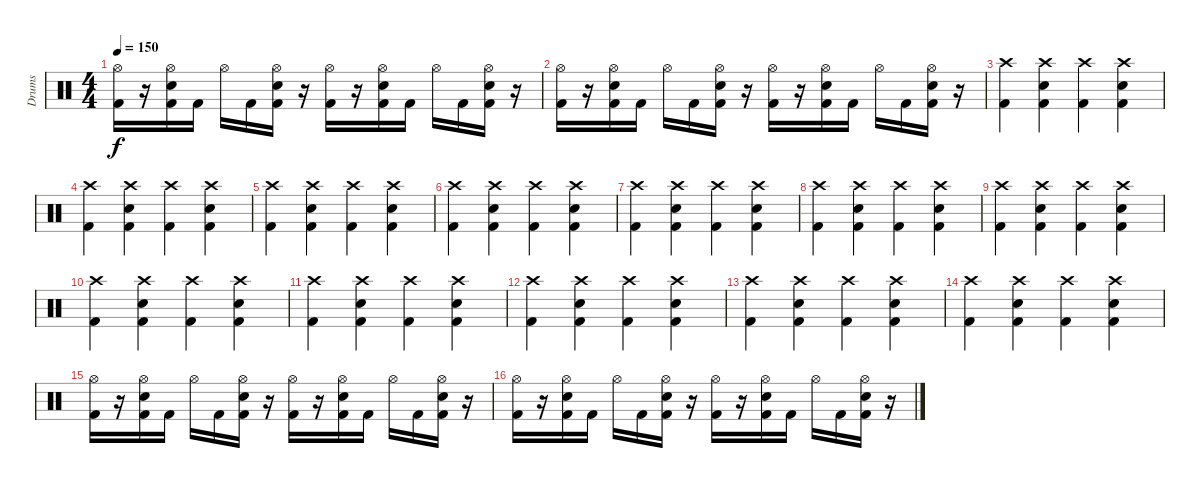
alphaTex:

\track ("Drums" "Drums") {instrument percussion}
\staff {score}
\articulation defaults
\ts (4 4)
\tempo 150
\clef neutral
\ks c
("Hi-Hat (open)" "Kick (hit) 2").16{dy f} r.16 ("Hi-Hat (open)" "Electric Snare (hit)" "Kick (hit) 2").16 "Kick (hit) 2".16 "Hi-Hat (open)".16 "Kick (hit) 2".16 ("Hi-Hat (open)" "Electric Snare (hit)" "Kick (hit) 2").16 r.16 ("Hi-Hat (open)" "Kick (hit) 2").16 r.16 ("Hi-Hat (open)" "Electric Snare (hit)" "Kick (hit) 2").16 "Kick (hit) 2".16 "Hi-Hat (open)".16 "Kick (hit) 2".16 ("Hi-Hat (open)" "Electric Snare (hit)" "Kick (hit) 2").16 r.16 |
("Hi-Hat (open)" "Kick (hit) 2").16 r.16 ("Hi-Hat (open)" "Electric Snare (hit)" "Kick (hit) 2").16 "Kick (hit) 2".16 "Hi-Hat (open)".16 "Kick (hit) 2".16 ("Hi-Hat (open)" "Electric Snare (hit)" "Kick (hit) 2").16 r.16 ("Hi-Hat (open)" "Kick (hit) 2").16 r.16 ("Hi-Hat (open)" "Electric Snare (hit)" "Kick (hit) 2").16 "Kick (hit) 2".16 "Hi-Hat (open)".16 "Kick (hit) 2".16 ("Hi-Hat (open)" "Electric Snare (hit)" "Kick (hit) 2").16 r.16 |
("Kick (hit) 2" "Crash high (hit)").4 ("Kick (hit) 2" "Electric Snare (hit)" "Crash high (hit)").4 ("Kick (hit) 2" "Crash high (hit)").4 ("Kick (hit) 2" "Electric Snare (hit)" "Crash high (hit)").4 |
("Kick (hit) 2" "Crash high (hit)").4 ("Kick (hit) 2" "Electric Snare (hit)" "Crash high (hit)").4 ("Kick (hit) 2" "Crash high (hit)").4 ("Kick (hit) 2" "Electric Snare (hit)" "Crash high (hit)").4 |
("Kick (hit) 2" "Crash high (hit)").4 ("Kick (hit) 2" "Electric Snare (hit)" "Crash high (hit)").4 ("Kick (hit) 2" "Crash high (hit)").4 ("Kick (hit) 2" "Electric Snare (hit)" "Crash high (hit)").4 |
("Kick (hit) 2" "Crash high (hit)").4 ("Kick (hit) 2" "Electric Snare (hit)" "Crash high (hit)").4 ("Kick (hit) 2" "Crash high (hit)").4 ("Kick (hit) 2" "Electric Snare (hit)" "Crash high (hit)").4 |
("Kick (hit) 2" "Crash high (hit)").4 ("Kick (hit) 2" "Electric Snare (hit)" "Crash high (hit)").4 ("Kick (hit) 2" "Crash high (hit)").4 ("Kick (hit) 2" "Electric Snare (hit)" "Crash high (hit)").4 |
("Kick (hit) 2" "Crash high (hit)").4 ("Kick (hit) 2" "Electric Snare (hit)" "Crash high (hit)").4 ("Kick (hit) 2" "Crash high (hit)").4 ("Kick (hit) 2" "Electric Snare (hit)" "Crash high (hit)").4 |
("Kick (hit) 2" "Crash high (hit)").4 ("Kick (hit) 2" "Electric Snare (hit)" "Crash high (hit)").4 ("Kick (hit) 2" "Crash high (hit)").4 ("Kick (hit) 2" "Electric Snare (hit)" "Crash high (hit)").4 |
("Kick (hit) 2" "Crash high (hit)").4 ("Kick (hit) 2" "Electric Snare (hit)" "Crash high (hit)").4 ("Kick (hit) 2" "Crash high (hit)").4 ("Kick (hit) 2" "Electric Snare (hit)" "Crash high (hit)").4 |
("Kick (hit) 2" "Crash high (hit)").4 ("Kick (hit) 2" "Electric Snare (hit)" "Crash high (hit)").4 ("Kick (hit) 2" "Crash high (hit)").4 ("Kick (hit) 2" "Electric Snare (hit)" "Crash high (hit)").4 |
("Kick (hit) 2" "Crash high (hit)").4 ("Kick (hit) 2" "Electric Snare (hit)" "Crash high (hit)").4 ("Kick (hit) 2" "Crash high (hit)").4 ("Kick (hit) 2" "Electric Snare (hit)" "Crash high (hit)").4 |
("Kick (hit) 2" "Crash high (hit)").4 ("Kick (hit) 2" "Electric Snare (hit)" "Crash high (hit)").4 ("Kick (hit) 2" "Crash high (hit)").4 ("Kick (hit) 2" "Electric Snare (hit)" "Crash high (hit)").4 |
("Kick (hit) 2" "Crash high (hit)").4 ("Kick (hit) 2" "Electric Snare (hit)" "Crash high (hit)").4 ("Kick (hit) 2" "Crash high (hit)").4 ("Kick (hit) 2" "Electric Snare (hit)" "Crash high (hit)").4 |
("Hi-Hat (open)" "Kick (hit) 2").16 r.16 ("Hi-Hat (open)" "Electric Snare (hit)" "Kick (hit) 2").16 "Kick (hit) 2".16 "Hi-Hat (open)".16 "Kick (hit) 2".16 ("Hi-Hat (open)" "Electric Snare (hit)" "Kick (hit) 2").16 r.16 ("Hi-Hat (open)" "Kick (hit) 2").16 r.16 ("Hi-Hat (open)" "Electric Snare (hit)" "Kick (hit) 2").16 "Kick (hit) 2".16 "Hi-Hat (open)".16 "Kick (hit) 2".16 ("Hi-Hat (open)" "Electric Snare (hit)" "Kick (hit) 2").16 r.16 |
("Hi-Hat (open)" "Kick (hit) 2").16 r.16 ("Hi-Hat (open)" "Electric Snare (hit)" "Kick (hit) 2").16 "Kick (hit) 2".16 "Hi-Hat (open)".16 "Kick (hit) 2".16 ("Hi-Hat (open)" "Electric Snare (hit)" "Kick (hit) 2").16 r.16 ("Hi-Hat (open)" "Kick (hit) 2").16 r.16 ("Hi-Hat (open)" "Electric Snare (hit)" "Kick (hit) 2").16 "Kick (hit) 2".16 "Hi-Hat (open)".16 "Kick (hit) 2".16 ("Hi-Hat (open)" "Electric Snare (hit)" "Kick (hit) 2").16 r.16
